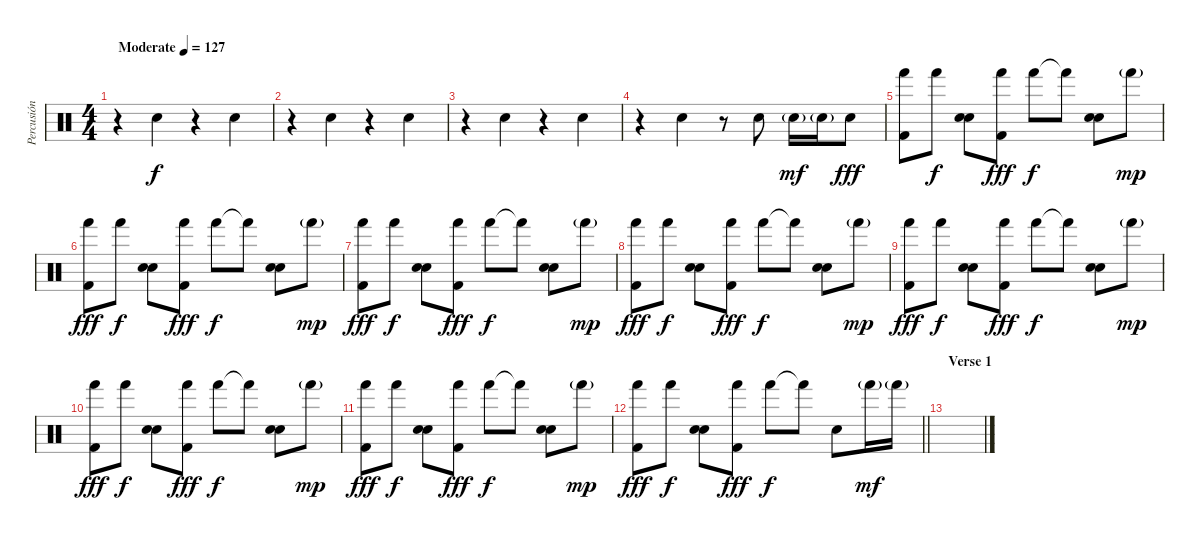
\track ("Percusión" "Percusión") {instrument percussion}
\staff {score}
\articulation defaults
\ts (4 4)
\tempo (127 "Moderate")
\clef neutral
\ks c
r.4{dy f} "Hand Clap (hit)".4 r.4 "Hand Clap (hit)".4 |
r.4 "Hand Clap (hit)".4 r.4 "Hand Clap (hit)".4 |
r.4 "Hand Clap (hit)".4 r.4 "Hand Clap (hit)".4 |
r.4 "Hand Clap (hit)".4 r.8 "Electric Snare (hit)".8 "Electric Snare (hit)"{g}.16{dy mf} "Electric Snare (hit)"{g}.16 "Electric Snare (hit)".8{dy fff} |
("Hand (hit)" "Kick (hit) 2").8 "Hand (hit)".8{dy f} ("Hand Clap (hit)" "Electric Snare (hit)").8 ("Hand (hit)" "Kick (hit) 2").8{dy fff} "Hand (hit)".8{dy f} "Hand (hit)"{t}.8 ("Hand Clap (hit)" "Electric Snare (hit)").8 "Hand (hit)"{g}.8{dy mp} |
("Hand (hit)" "Kick (hit) 2").8{dy fff} "Hand (hit)".8{dy f} ("Hand Clap (hit)" "Electric Snare (hit)").8 ("Hand (hit)" "Kick (hit) 2").8{dy fff} "Hand (hit)".8{dy f} "Hand (hit)"{t}.8 ("Hand Clap (hit)" "Electric Snare (hit)").8 "Hand (hit)"{g}.8{dy mp} |
("Hand (hit)" "Kick (hit) 2").8{dy fff} "Hand (hit)".8{dy f} ("Hand Clap (hit)" "Electric Snare (hit)").8 ("Hand (hit)" "Kick (hit) 2").8{dy fff} "Hand (hit)".8{dy f} "Hand (hit)"{t}.8 ("Hand Clap (hit)" "Electric Snare (hit)").8 "Hand (hit)"{g}.8{dy mp} |
("Hand (hit)" "Kick (hit) 2").8{dy fff} "Hand (hit)".8{dy f} ("Hand Clap (hit)" "Electric Snare (hit)").8 ("Hand (hit)" "Kick (hit) 2").8{dy fff} "Hand (hit)".8{dy f} "Hand (hit)"{t}.8 ("Hand Clap (hit)" "Electric Snare (hit)").8 "Hand (hit)"{g}.8{dy mp} |
("Hand (hit)" "Kick (hit) 2").8{dy fff} "Hand (hit)".8{dy f} ("Hand Clap (hit)" "Electric Snare (hit)").8 ("Hand (hit)" "Kick (hit) 2").8{dy fff} "Hand (hit)".8{dy f} "Hand (hit)"{t}.8 ("Hand Clap (hit)" "Electric Snare (hit)").8 "Hand (hit)"{g}.8{dy mp} |
("Hand (hit)" "Kick (hit) 2").8{dy fff} "Hand (hit)".8{dy f} ("Hand Clap (hit)" "Electric Snare (hit)").8 ("Hand (hit)" "Kick (hit) 2").8{dy fff} "Hand (hit)".8{dy f} "Hand (hit)"{t}.8 ("Hand Clap (hit)" "Electric Snare (hit)").8 "Hand (hit)"{g}.8{dy mp} |
("Hand (hit)" "Kick (hit) 2").8{dy fff} "Hand (hit)".8{dy f} ("Hand Clap (hit)" "Electric Snare (hit)").8 ("Hand (hit)" "Kick (hit) 2").8{dy fff} "Hand (hit)".8{dy f} "Hand (hit)"{t}.8 ("Hand Clap (hit)" "Electric Snare (hit)").8 "Hand (hit)"{g}.8{dy mp} |
\barLineRight lightlight
("Hand (hit)" "Kick (hit) 2").8{dy fff} "Hand (hit)".8{dy f} ("Hand Clap (hit)" "Electric Snare (hit)").8 ("Hand (hit)" "Kick (hit) 2").8{dy fff} "Hand (hit)".8{dy f} "Hand (hit)"{t}.8 "Electric Snare (hit)".8 "Hand (hit)"{g}.16{dy mf} "Hand (hit)"{g}.16 |
\section ("" "Verse 1")
